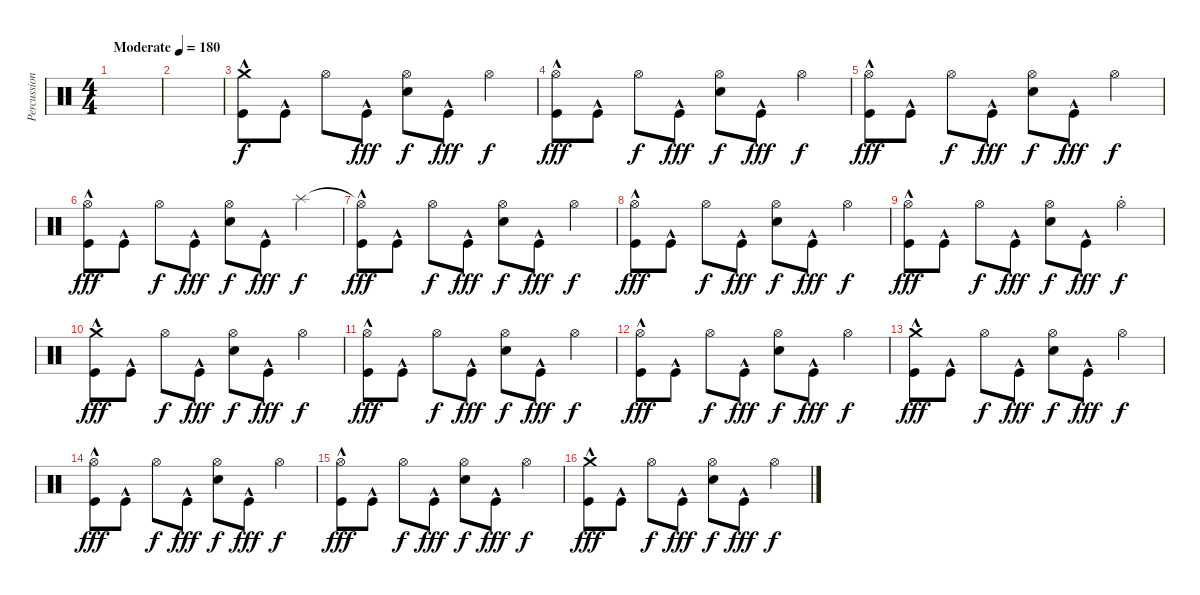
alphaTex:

\track ("Percussion" "Percussion") {instrument percussion}
\staff {score}
\articulation defaults
\ts (4 4)
\tempo (180 "Moderate")
\clef neutral
\ks c
|
|
("Crash medium (hit)" "Kick (hit)"{hac}).8 "Kick (hit)"{hac}.8 "Hi-Hat (open)".8{dy f} "Kick (hit)"{hac}.8{dy fff} ("Hi-Hat (open)" "Electric Snare (hit)").8{dy f} "Kick (hit)"{hac}.8{dy fff} "Hi-Hat (open)".4{dy f} |
("Hi-Hat (open)" "Kick (hit)"{hac}).8{dy fff} "Kick (hit)"{hac}.8 "Hi-Hat (open)".8{dy f} "Kick (hit)"{hac}.8{dy fff} ("Hi-Hat (open)" "Electric Snare (hit)").8{dy f} "Kick (hit)"{hac}.8{dy fff} "Hi-Hat (open)".4{dy f} |
("Hi-Hat (open)" "Kick (hit)"{hac}).8{dy fff} "Kick (hit)"{hac}.8 "Hi-Hat (open)".8{dy f} "Kick (hit)"{hac}.8{dy fff} ("Hi-Hat (open)" "Electric Snare (hit)").8{dy f} "Kick (hit)"{hac}.8{dy fff} "Hi-Hat (open)".4{dy f} |
("Hi-Hat (open)" "Kick (hit)"{hac}).8{dy fff} "Kick (hit)"{hac}.8 "Hi-Hat (open)".8{dy f} "Kick (hit)"{hac}.8{dy fff} ("Hi-Hat (open)" "Electric Snare (hit)").8{dy f} "Kick (hit)"{hac}.8{dy fff} "Splash (hit)".4{dy f} |
("Hi-Hat (open)"{t} "Kick (hit)"{hac}).8{dy fff} "Kick (hit)"{hac}.8 "Hi-Hat (open)".8{dy f} "Kick (hit)"{hac}.8{dy fff} ("Hi-Hat (open)" "Electric Snare (hit)").8{dy f} "Kick (hit)"{hac}.8{dy fff} "Hi-Hat (open)".4{dy f} |
("Hi-Hat (open)" "Kick (hit)"{hac}).8{dy fff} "Kick (hit)"{hac}.8 "Hi-Hat (open)".8{dy f} "Kick (hit)"{hac}.8{dy fff} ("Hi-Hat (open)" "Electric Snare (hit)").8{dy f} "Kick (hit)"{hac}.8{dy fff} "Hi-Hat (open)".4{dy f} |
("Hi-Hat (open)" "Kick (hit)"{hac}).8{dy fff} "Kick (hit)"{hac}.8 "Hi-Hat (open)".8{dy f} "Kick (hit)"{hac}.8{dy fff} ("Hi-Hat (open)" "Electric Snare (hit)").8{dy f} "Kick (hit)"{hac}.8{dy fff} "Hi-Hat (open)"{st}.4{dy f} |
("Crash medium (hit)" "Kick (hit)"{hac}).8{dy fff} "Kick (hit)"{hac}.8 "Hi-Hat (open)".8{dy f} "Kick (hit)"{hac}.8{dy fff} ("Hi-Hat (open)" "Electric Snare (hit)").8{dy f} "Kick (hit)"{hac}.8{dy fff} "Hi-Hat (open)".4{dy f} |
("Hi-Hat (open)" "Kick (hit)"{hac}).8{dy fff} "Kick (hit)"{hac}.8 "Hi-Hat (open)".8{dy f} "Kick (hit)"{hac}.8{dy fff} ("Hi-Hat (open)" "Electric Snare (hit)").8{dy f} "Kick (hit)"{hac}.8{dy fff} "Hi-Hat (open)".4{dy f} |
("Hi-Hat (open)" "Kick (hit)"{hac}).8{dy fff} "Kick (hit)"{hac}.8 "Hi-Hat (open)".8{dy f} "Kick (hit)"{hac}.8{dy fff} ("Hi-Hat (open)" "Electric Snare (hit)").8{dy f} "Kick (hit)"{hac}.8{dy fff} "Hi-Hat (open)".4{dy f} |
("Crash medium (hit)" "Kick (hit)"{hac}).8{dy fff} "Kick (hit)"{hac}.8 "Hi-Hat (open)".8{dy f} "Kick (hit)"{hac}.8{dy fff} ("Hi-Hat (open)" "Electric Snare (hit)").8{dy f} "Kick (hit)"{hac}.8{dy fff} "Hi-Hat (open)".4{dy f} |
("Hi-Hat (open)" "Kick (hit)"{hac}).8{dy fff} "Kick (hit)"{hac}.8 "Hi-Hat (open)".8{dy f} "Kick (hit)"{hac}.8{dy fff} ("Hi-Hat (open)" "Electric Snare (hit)").8{dy f} "Kick (hit)"{hac}.8{dy fff} "Hi-Hat (open)".4{dy f} |
("Hi-Hat (open)" "Kick (hit)"{hac}).8{dy fff} "Kick (hit)"{hac}.8 "Hi-Hat (open)".8{dy f} "Kick (hit)"{hac}.8{dy fff} ("Hi-Hat (open)" "Electric Snare (hit)").8{dy f} "Kick (hit)"{hac}.8{dy fff} "Hi-Hat (open)".4{dy f} |
("Crash medium (hit)" "Kick (hit)"{hac}).8{dy fff} "Kick (hit)"{hac}.8 "Hi-Hat (open)".8{dy f} "Kick (hit)"{hac}.8{dy fff} ("Hi-Hat (open)" "Electric Snare (hit)").8{dy f} "Kick (hit)"{hac}.8{dy fff} "Hi-Hat (open)".4{dy f}
